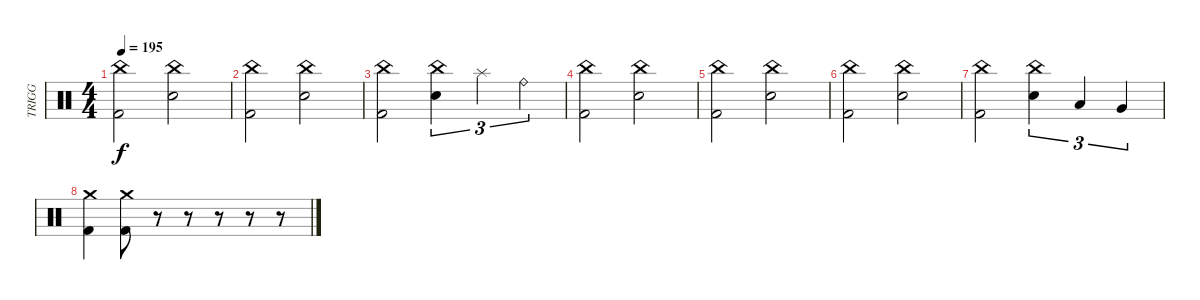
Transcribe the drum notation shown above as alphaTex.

\track ("TRIGG" "TRIGG") {instrument percussion}
\staff {score}
\articulation defaults
\ts (4 4)
\tempo 195
\clef neutral
\ks c
("China (hit)" "Kick (hit) 2").2{dy f} ("China (hit)" "Electric Snare (hit)").2 |
("China (hit)" "Kick (hit) 2").2 ("China (hit)" "Electric Snare (hit)").2 |
("China (hit)" "Kick (hit) 2").2 ("China (hit)" "Electric Snare (hit)").4{tu (3 2)} "Splash (hit)".4{tu (3 2)} "Ride (bell)".4{tu (3 2)} |
("China (hit)" "Kick (hit) 2").2 ("China (hit)" "Electric Snare (hit)").2 |
("China (hit)" "Kick (hit) 2").2 ("China (hit)" "Electric Snare (hit)").2 |
("China (hit)" "Kick (hit) 2").2 ("China (hit)" "Electric Snare (hit)").2 |
("China (hit)" "Kick (hit) 2").2 ("China (hit)" "Electric Snare (hit)").4{tu (3 2)} "Low Tom (hit)".4{tu (3 2)} "Very Low Tom (hit)".4{tu (3 2)} |
("Crash medium (hit)" "Kick (hit) 2").4 ("Crash medium (hit)" "Kick (hit) 2").8 r.8 r.8 r.8 r.8 r.8
